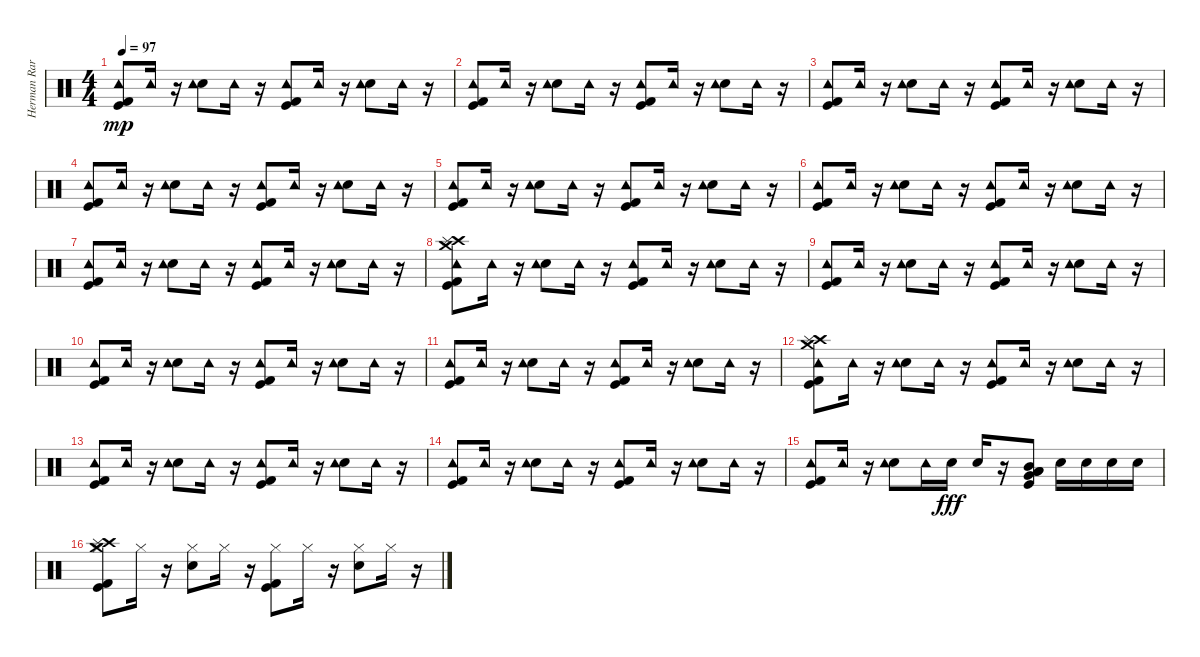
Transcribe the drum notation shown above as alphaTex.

\track ("Herman Rarebell" "Herman Rar") {instrument percussion}
\staff {score}
\articulation defaults
\ts (4 4)
\tempo 97
\clef neutral
\ks c
("Kick (hit)" "Kick (hit) 2" "Tambourine (hit)").8{dy mp} "Tambourine (hit)".16 r.16 ("Snare (hit) 2" "Tambourine (hit)").8 "Tambourine (hit)".16 r.16 ("Kick (hit) 2" "Kick (hit)" "Tambourine (hit)").8 "Tambourine (hit)".16 r.16 ("Snare (hit) 2" "Tambourine (hit)").8 "Tambourine (hit)".16 r.16 |
("Kick (hit)" "Kick (hit) 2" "Tambourine (hit)").8 "Tambourine (hit)".16 r.16 ("Snare (hit) 2" "Tambourine (hit)").8 "Tambourine (hit)".16 r.16 ("Kick (hit) 2" "Kick (hit)" "Tambourine (hit)").8 "Tambourine (hit)".16 r.16 ("Snare (hit) 2" "Tambourine (hit)").8 "Tambourine (hit)".16 r.16 |
("Kick (hit)" "Kick (hit) 2" "Tambourine (hit)").8 "Tambourine (hit)".16 r.16 ("Snare (hit) 2" "Tambourine (hit)").8 "Tambourine (hit)".16 r.16 ("Kick (hit) 2" "Kick (hit)" "Tambourine (hit)").8 "Tambourine (hit)".16 r.16 ("Snare (hit) 2" "Tambourine (hit)").8 "Tambourine (hit)".16 r.16 |
("Kick (hit)" "Kick (hit) 2" "Tambourine (hit)").8 "Tambourine (hit)".16 r.16 ("Snare (hit) 2" "Tambourine (hit)").8 "Tambourine (hit)".16 r.16 ("Kick (hit) 2" "Kick (hit)" "Tambourine (hit)").8 "Tambourine (hit)".16 r.16 ("Snare (hit) 2" "Tambourine (hit)").8 "Tambourine (hit)".16 r.16 |
("Kick (hit)" "Kick (hit) 2" "Tambourine (hit)").8 "Tambourine (hit)".16 r.16 ("Snare (hit) 2" "Tambourine (hit)").8 "Tambourine (hit)".16 r.16 ("Kick (hit) 2" "Kick (hit)" "Tambourine (hit)").8 "Tambourine (hit)".16 r.16 ("Snare (hit) 2" "Tambourine (hit)").8 "Tambourine (hit)".16 r.16 |
("Kick (hit)" "Kick (hit) 2" "Tambourine (hit)").8 "Tambourine (hit)".16 r.16 ("Snare (hit) 2" "Tambourine (hit)").8 "Tambourine (hit)".16 r.16 ("Kick (hit) 2" "Kick (hit)" "Tambourine (hit)").8 "Tambourine (hit)".16 r.16 ("Snare (hit) 2" "Tambourine (hit)").8 "Tambourine (hit)".16 r.16 |
("Kick (hit)" "Kick (hit) 2" "Tambourine (hit)").8 "Tambourine (hit)".16 r.16 ("Snare (hit) 2" "Tambourine (hit)").8 "Tambourine (hit)".16 r.16 ("Kick (hit) 2" "Kick (hit)" "Tambourine (hit)").8 "Tambourine (hit)".16 r.16 ("Snare (hit) 2" "Tambourine (hit)").8 "Tambourine (hit)".16 r.16 |
("Crash high (hit)" "Splash (hit)" "Crash medium (hit)" "Kick (hit) 2" "Kick (hit)" "Tambourine (hit)").8 "Tambourine (hit)".16 r.16 ("Snare (hit) 2" "Tambourine (hit)").8 "Tambourine (hit)".16 r.16 ("Kick (hit) 2" "Kick (hit)" "Tambourine (hit)").8 "Tambourine (hit)".16 r.16 ("Snare (hit) 2" "Tambourine (hit)").8 "Tambourine (hit)".16 r.16 |
("Kick (hit)" "Kick (hit) 2" "Tambourine (hit)").8 "Tambourine (hit)".16 r.16 ("Snare (hit) 2" "Tambourine (hit)").8 "Tambourine (hit)".16 r.16 ("Kick (hit) 2" "Kick (hit)" "Tambourine (hit)").8 "Tambourine (hit)".16 r.16 ("Snare (hit) 2" "Tambourine (hit)").8 "Tambourine (hit)".16 r.16 |
("Kick (hit)" "Kick (hit) 2" "Tambourine (hit)").8 "Tambourine (hit)".16 r.16 ("Snare (hit) 2" "Tambourine (hit)").8 "Tambourine (hit)".16 r.16 ("Kick (hit) 2" "Kick (hit)" "Tambourine (hit)").8 "Tambourine (hit)".16 r.16 ("Snare (hit) 2" "Tambourine (hit)").8 "Tambourine (hit)".16 r.16 |
("Kick (hit)" "Kick (hit) 2" "Tambourine (hit)").8 "Tambourine (hit)".16 r.16 ("Snare (hit) 2" "Tambourine (hit)").8 "Tambourine (hit)".16 r.16 ("Kick (hit) 2" "Kick (hit)" "Tambourine (hit)").8 "Tambourine (hit)".16 r.16 ("Snare (hit) 2" "Tambourine (hit)").8 "Tambourine (hit)".16 r.16 |
("Crash high (hit)" "Splash (hit)" "Crash medium (hit)" "Kick (hit) 2" "Kick (hit)" "Tambourine (hit)").8 "Tambourine (hit)".16 r.16 ("Snare (hit) 2" "Tambourine (hit)").8 "Tambourine (hit)".16 r.16 ("Kick (hit) 2" "Kick (hit)" "Tambourine (hit)").8 "Tambourine (hit)".16 r.16 ("Snare (hit) 2" "Tambourine (hit)").8 "Tambourine (hit)".16 r.16 |
("Kick (hit)" "Kick (hit) 2" "Tambourine (hit)").8 "Tambourine (hit)".16 r.16 ("Snare (hit) 2" "Tambourine (hit)").8 "Tambourine (hit)".16 r.16 ("Kick (hit) 2" "Kick (hit)" "Tambourine (hit)").8 "Tambourine (hit)".16 r.16 ("Snare (hit) 2" "Tambourine (hit)").8 "Tambourine (hit)".16 r.16 |
("Kick (hit)" "Kick (hit) 2" "Tambourine (hit)").8 "Tambourine (hit)".16 r.16 ("Snare (hit) 2" "Tambourine (hit)").8 "Tambourine (hit)".16 r.16 ("Kick (hit) 2" "Kick (hit)" "Tambourine (hit)").8 "Tambourine (hit)".16 r.16 ("Snare (hit) 2" "Tambourine (hit)").8 "Tambourine (hit)".16 r.16 |
("Kick (hit) 2" "Kick (hit)" "Tambourine (hit)").8 "Tambourine (hit)".16 r.16 ("Snare (hit) 2" "Tambourine (hit)").8 "Tambourine (hit)".16 "Snare (hit) 2".16{dy fff} "Snare (hit) 2".16 r.16 ("Mid Tom (hit)" "Low Tom (hit)" "Very Low Tom (hit)" "Low Floor Tom (hit)" "Kick (hit)").8 "Snare (hit) 2".16 "Snare (hit) 2".16 "Snare (hit) 2".16 "Snare (hit) 2".16 |
("Hi-Hat (closed)" "Crash high (hit)" "Splash (hit)" "Crash medium (hit)" "Kick (hit)" "Kick (hit) 2").8 "Hi-Hat (closed)".16 r.16 ("Snare (hit) 2" "Hi-Hat (closed)").8 "Hi-Hat (closed)".16 r.16 ("Kick (hit) 2" "Kick (hit)" "Hi-Hat (closed)").8 "Hi-Hat (closed)".16 r.16 ("Snare (hit) 2" "Hi-Hat (closed)").8 "Hi-Hat (closed)".16 r.16
